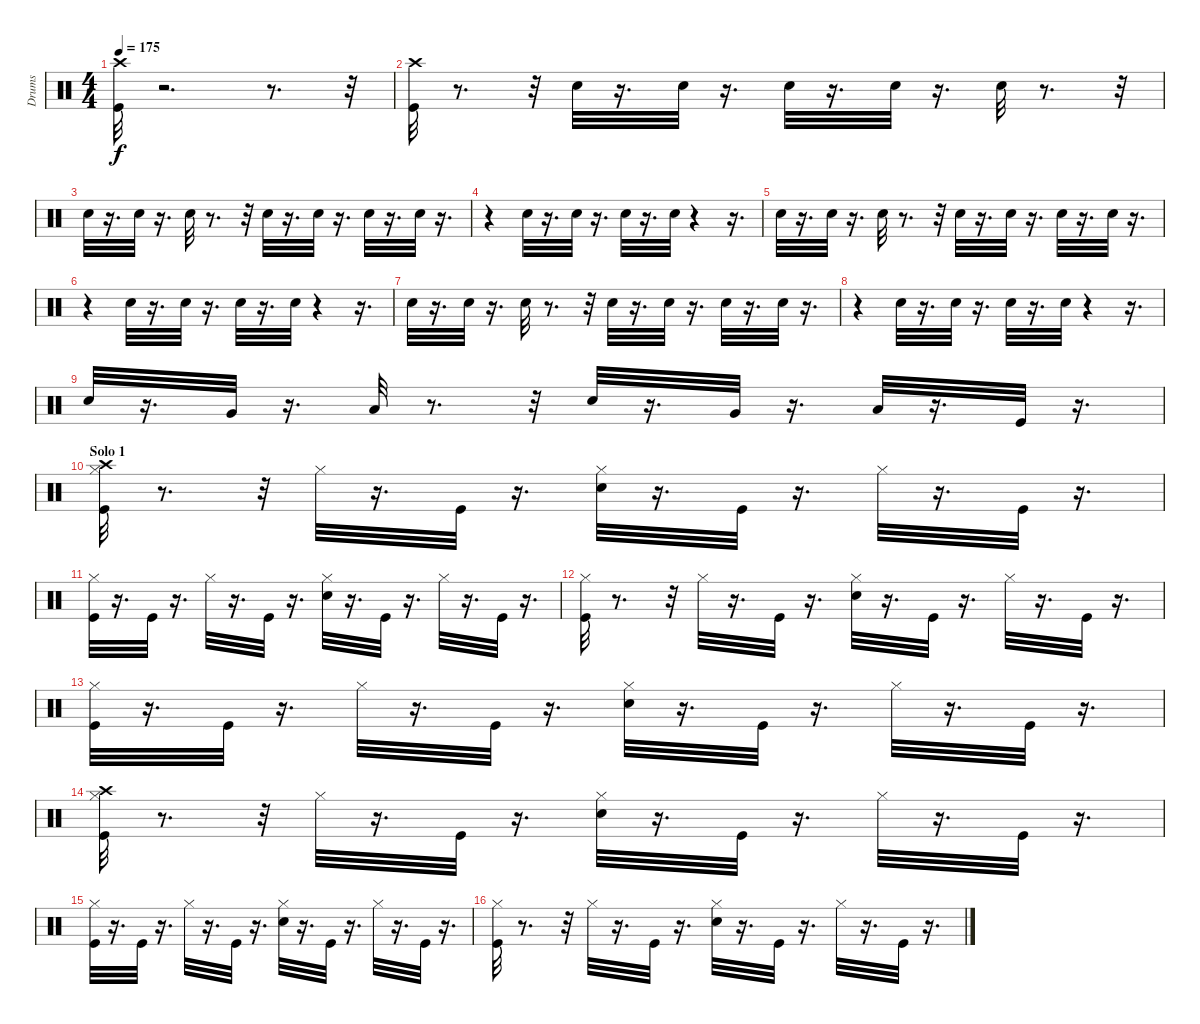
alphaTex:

\track ("Drums" "Drums") {instrument percussion}
\staff {score}
\articulation defaults
\ts (4 4)
\tempo 175
\clef neutral
\ks c
("Kick (hit)" "Crash high (hit)").32{dy f} r.2{d} r.8{d} r.32 |
("Crash high (hit)" "Kick (hit)").32 r.8{d} r.32 "Electric Snare (hit)".32 r.16{d} "Electric Snare (hit)".32 r.16{d} "Electric Snare (hit)".32 r.16{d} "Electric Snare (hit)".32 r.16{d} "Electric Snare (hit)".32 r.8{d} r.32 |
"Electric Snare (hit)".32 r.16{d} "Electric Snare (hit)".32 r.16{d} "Electric Snare (hit)".32 r.8{d} r.32 "Electric Snare (hit)".32 r.16{d} "Electric Snare (hit)".32 r.16{d} "Electric Snare (hit)".32 r.16{d} "Electric Snare (hit)".32 r.16{d} |
r.4 "Electric Snare (hit)".32 r.16{d} "Electric Snare (hit)".32 r.16{d} "Electric Snare (hit)".32 r.16{d} "Electric Snare (hit)".32 r.4 r.16{d} |
"Electric Snare (hit)".32 r.16{d} "Electric Snare (hit)".32 r.16{d} "Electric Snare (hit)".32 r.8{d} r.32 "Electric Snare (hit)".32 r.16{d} "Electric Snare (hit)".32 r.16{d} "Electric Snare (hit)".32 r.16{d} "Electric Snare (hit)".32 r.16{d} |
r.4 "Electric Snare (hit)".32 r.16{d} "Electric Snare (hit)".32 r.16{d} "Electric Snare (hit)".32 r.16{d} "Electric Snare (hit)".32 r.4 r.16{d} |
"Electric Snare (hit)".32 r.16{d} "Electric Snare (hit)".32 r.16{d} "Electric Snare (hit)".32 r.8{d} r.32 "Electric Snare (hit)".32 r.16{d} "Electric Snare (hit)".32 r.16{d} "Electric Snare (hit)".32 r.16{d} "Electric Snare (hit)".32 r.16{d} |
r.4 "Electric Snare (hit)".32 r.16{d} "Electric Snare (hit)".32 r.16{d} "Electric Snare (hit)".32 r.16{d} "Electric Snare (hit)".32 r.4 r.16{d} |
"Electric Snare (hit)".32 r.16{d} "Very Low Tom (hit)".32 r.16{d} "Low Floor Tom (hit)".32 r.8{d} r.32 "Electric Snare (hit)".32 r.16{d} "Very Low Tom (hit)".32 r.16{d} "Low Floor Tom (hit)".32 r.16{d} "Kick (hit)".32 r.16{d} |
\section ("" "Solo 1")
("Hi-Hat (closed)" "Crash high (hit)" "Kick (hit)").32 r.8{d} r.32 "Hi-Hat (closed)".32 r.16{d} "Kick (hit)".32 r.16{d} ("Hi-Hat (closed)" "Electric Snare (hit)").32 r.16{d} "Kick (hit)".32 r.16{d} "Hi-Hat (closed)".32 r.16{d} "Kick (hit)".32 r.16{d} |
("Hi-Hat (closed)" "Kick (hit)").32 r.16{d} "Kick (hit)".32 r.16{d} "Hi-Hat (closed)".32 r.16{d} "Kick (hit)".32 r.16{d} ("Hi-Hat (closed)" "Electric Snare (hit)").32 r.16{d} "Kick (hit)".32 r.16{d} "Hi-Hat (closed)".32 r.16{d} "Kick (hit)".32 r.16{d} |
("Hi-Hat (closed)" "Kick (hit)").32 r.8{d} r.32 "Hi-Hat (closed)".32 r.16{d} "Kick (hit)".32 r.16{d} ("Hi-Hat (closed)" "Electric Snare (hit)").32 r.16{d} "Kick (hit)".32 r.16{d} "Hi-Hat (closed)".32 r.16{d} "Kick (hit)".32 r.16{d} |
("Hi-Hat (closed)" "Kick (hit)").32 r.16{d} "Kick (hit)".32 r.16{d} "Hi-Hat (closed)".32 r.16{d} "Kick (hit)".32 r.16{d} ("Hi-Hat (closed)" "Electric Snare (hit)").32 r.16{d} "Kick (hit)".32 r.16{d} "Hi-Hat (closed)".32 r.16{d} "Kick (hit)".32 r.16{d} |
("Hi-Hat (closed)" "Crash high (hit)" "Kick (hit)").32 r.8{d} r.32 "Hi-Hat (closed)".32 r.16{d} "Kick (hit)".32 r.16{d} ("Hi-Hat (closed)" "Electric Snare (hit)").32 r.16{d} "Kick (hit)".32 r.16{d} "Hi-Hat (closed)".32 r.16{d} "Kick (hit)".32 r.16{d} |
("Hi-Hat (closed)" "Kick (hit)").32 r.16{d} "Kick (hit)".32 r.16{d} "Hi-Hat (closed)".32 r.16{d} "Kick (hit)".32 r.16{d} ("Hi-Hat (closed)" "Electric Snare (hit)").32 r.16{d} "Kick (hit)".32 r.16{d} "Hi-Hat (closed)".32 r.16{d} "Kick (hit)".32 r.16{d} |
("Hi-Hat (closed)" "Kick (hit)").32 r.8{d} r.32 "Hi-Hat (closed)".32 r.16{d} "Kick (hit)".32 r.16{d} ("Hi-Hat (closed)" "Electric Snare (hit)").32 r.16{d} "Kick (hit)".32 r.16{d} "Hi-Hat (closed)".32 r.16{d} "Kick (hit)".32 r.16{d}
